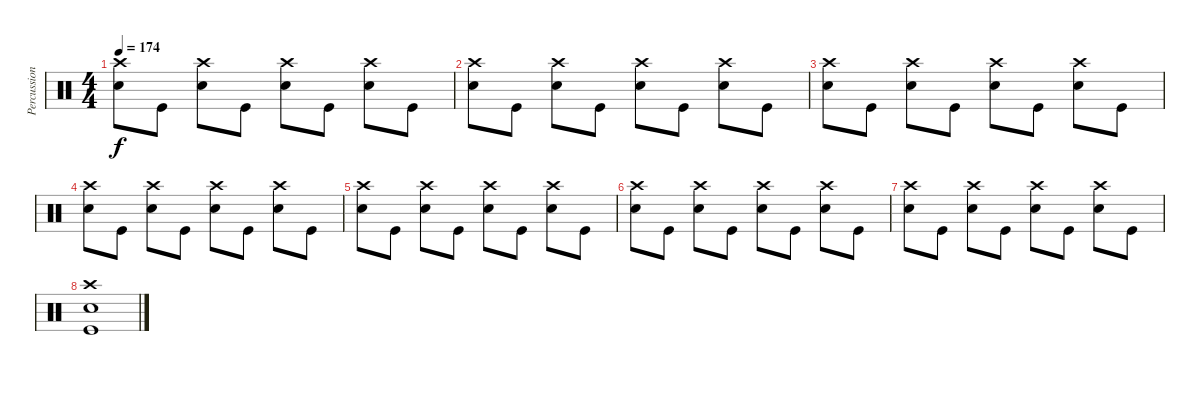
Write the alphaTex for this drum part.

\track ("Percussion" "Percussion") {instrument percussion}
\staff {score}
\articulation defaults
\ts (4 4)
\tempo 174
\clef neutral
\ks c
("Crash high (hit)" "Electric Snare (hit)").8{dy f} "Kick (hit)".8 ("Crash high (hit)" "Electric Snare (hit)").8 "Kick (hit)".8 ("Crash high (hit)" "Electric Snare (hit)").8 "Kick (hit)".8 ("Crash high (hit)" "Electric Snare (hit)").8 "Kick (hit)".8 |
("Crash high (hit)" "Electric Snare (hit)").8 "Kick (hit)".8 ("Crash high (hit)" "Electric Snare (hit)").8 "Kick (hit)".8 ("Crash high (hit)" "Electric Snare (hit)").8 "Kick (hit)".8 ("Crash high (hit)" "Electric Snare (hit)").8 "Kick (hit)".8 |
("Crash high (hit)" "Electric Snare (hit)").8 "Kick (hit)".8 ("Crash high (hit)" "Electric Snare (hit)").8 "Kick (hit)".8 ("Crash high (hit)" "Electric Snare (hit)").8 "Kick (hit)".8 ("Crash high (hit)" "Electric Snare (hit)").8 "Kick (hit)".8 |
("Crash high (hit)" "Electric Snare (hit)").8 "Kick (hit)".8 ("Crash high (hit)" "Electric Snare (hit)").8 "Kick (hit)".8 ("Crash high (hit)" "Electric Snare (hit)").8 "Kick (hit)".8 ("Crash high (hit)" "Electric Snare (hit)").8 "Kick (hit)".8 |
("Crash high (hit)" "Electric Snare (hit)").8 "Kick (hit)".8 ("Crash high (hit)" "Electric Snare (hit)").8 "Kick (hit)".8 ("Crash high (hit)" "Electric Snare (hit)").8 "Kick (hit)".8 ("Crash high (hit)" "Electric Snare (hit)").8 "Kick (hit)".8 |
("Crash high (hit)" "Electric Snare (hit)").8 "Kick (hit)".8 ("Crash high (hit)" "Electric Snare (hit)").8 "Kick (hit)".8 ("Crash high (hit)" "Electric Snare (hit)").8 "Kick (hit)".8 ("Crash high (hit)" "Electric Snare (hit)").8 "Kick (hit)".8 |
("Crash high (hit)" "Electric Snare (hit)").8 "Kick (hit)".8 ("Crash high (hit)" "Electric Snare (hit)").8 "Kick (hit)".8 ("Crash high (hit)" "Electric Snare (hit)").8 "Kick (hit)".8 ("Crash high (hit)" "Electric Snare (hit)").8 "Kick (hit)".8 |
("Crash high (hit)" "Electric Snare (hit)" "Kick (hit)").1
